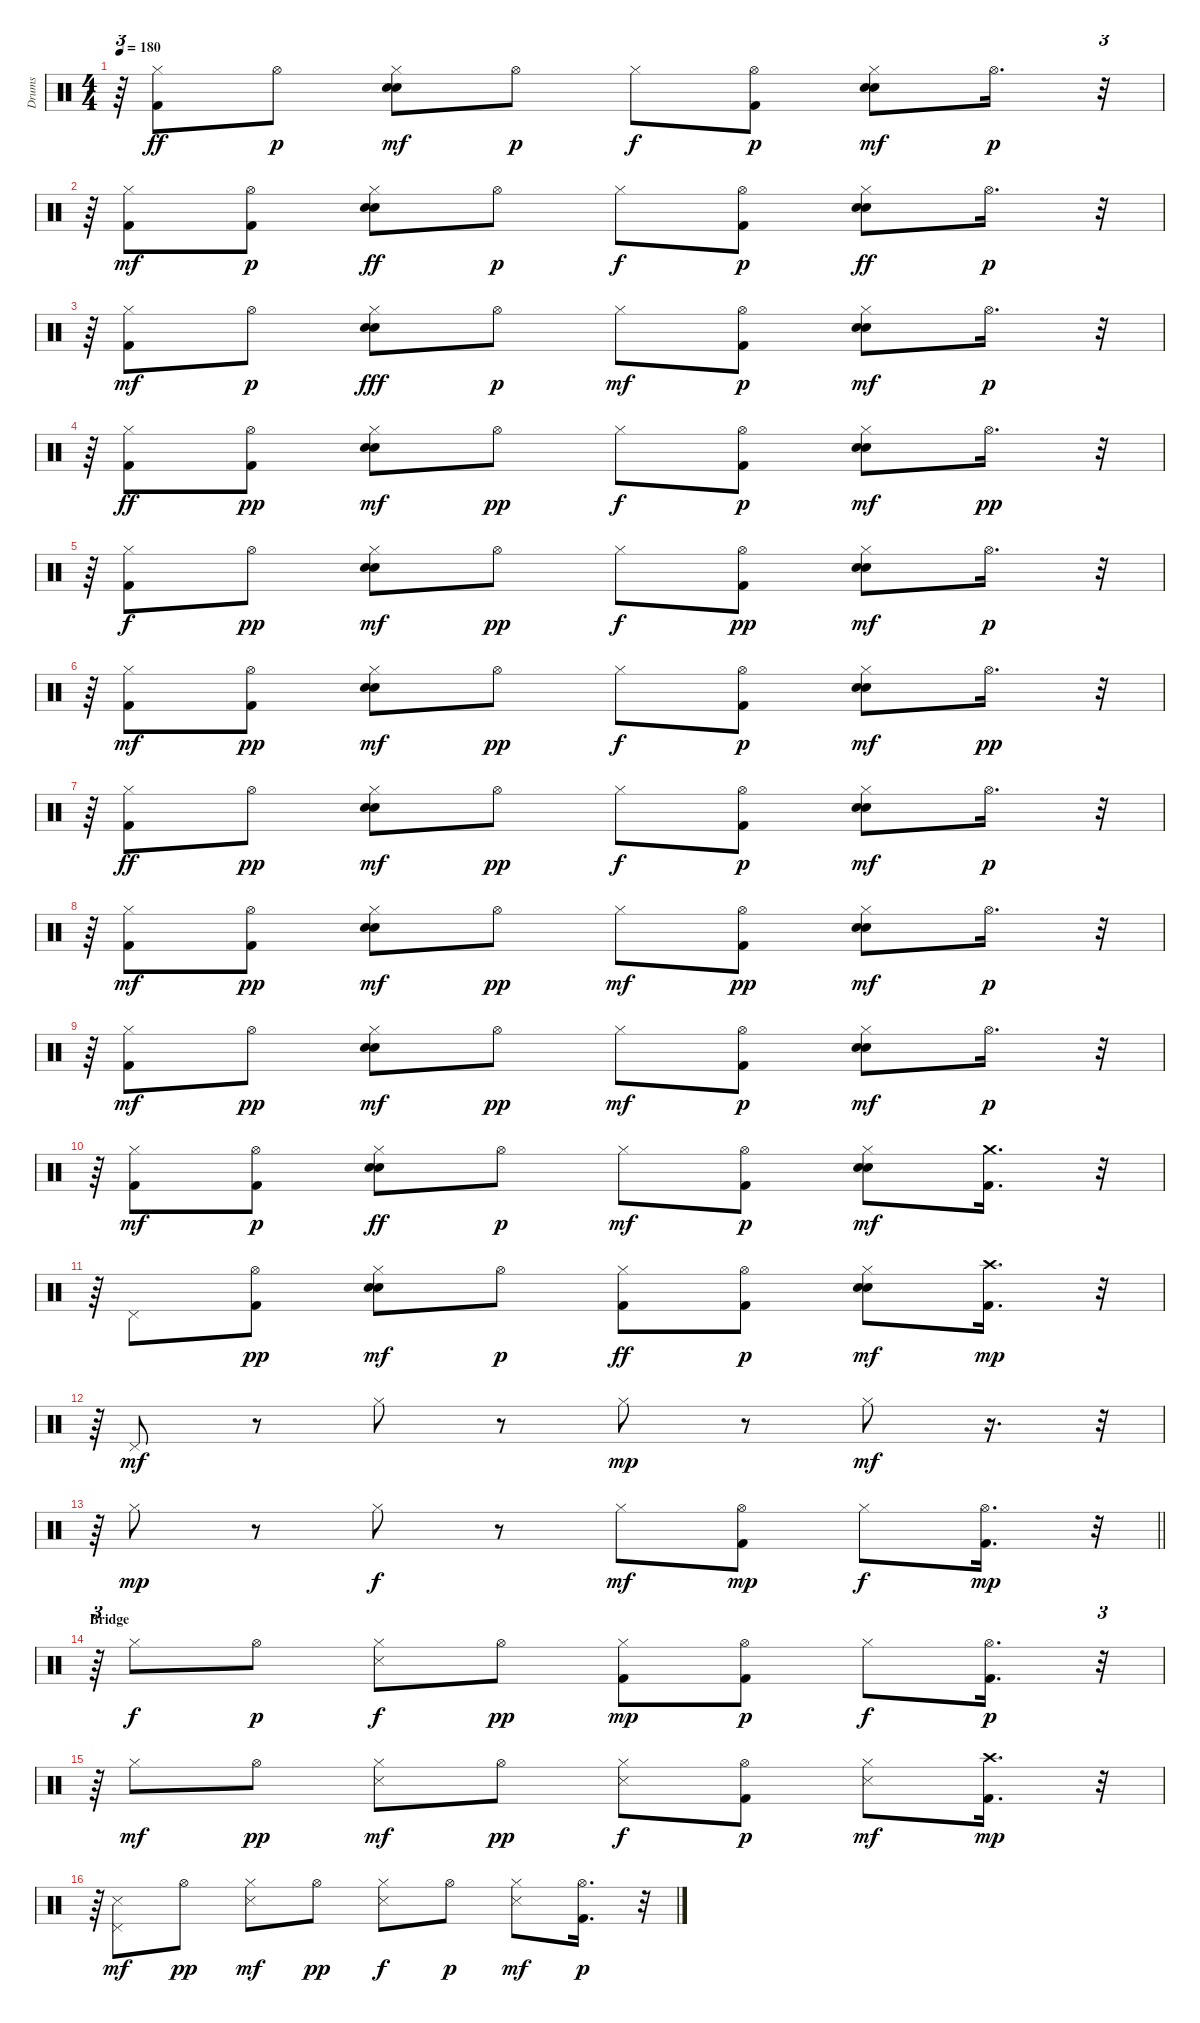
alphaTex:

\track ("Drums" "Drums") {instrument percussion}
\staff {score}
\articulation defaults
\ts (4 4)
\tempo 180
\clef neutral
\ks c
r.64{tu (3 2) dy p} ("Kick (hit) 2" "Hi-Hat (closed)").8{dy ff} "Hi-Hat (open)".8{dy p} ("Electric Snare (hit)" "Snare (hit) 2" "Hi-Hat (closed)").8{dy mf} "Hi-Hat (open)".8{dy p} "Hi-Hat (closed)".8{dy f} ("Kick (hit) 2" "Hi-Hat (open)").8{dy p} ("Electric Snare (hit)" "Snare (hit) 2" "Hi-Hat (closed)").8{dy mf} "Hi-Hat (open)".16{d dy p} r.32{tu (3 2)} |
r.64{tu (3 2)} ("Kick (hit) 2" "Hi-Hat (closed)").8{dy mf} ("Kick (hit) 2" "Hi-Hat (open)").8{dy p} ("Electric Snare (hit)" "Snare (hit) 2" "Hi-Hat (closed)").8{dy ff} "Hi-Hat (open)".8{dy p} "Hi-Hat (closed)".8{dy f} ("Kick (hit) 2" "Hi-Hat (open)").8{dy p} ("Electric Snare (hit)" "Snare (hit) 2" "Hi-Hat (closed)").8{dy ff} "Hi-Hat (open)".16{d dy p} r.32{tu (3 2)} |
r.64{tu (3 2)} ("Kick (hit) 2" "Hi-Hat (closed)").8{dy mf} "Hi-Hat (open)".8{dy p} ("Electric Snare (hit)" "Snare (hit) 2" "Hi-Hat (closed)").8{dy fff} "Hi-Hat (open)".8{dy p} "Hi-Hat (closed)".8{dy mf} ("Kick (hit) 2" "Hi-Hat (open)").8{dy p} ("Electric Snare (hit)" "Snare (hit) 2" "Hi-Hat (closed)").8{dy mf} "Hi-Hat (open)".16{d dy p} r.32{tu (3 2)} |
r.64{tu (3 2)} ("Kick (hit) 2" "Hi-Hat (closed)").8{dy ff} ("Kick (hit) 2" "Hi-Hat (open)").8{dy pp} ("Electric Snare (hit)" "Snare (hit) 2" "Hi-Hat (closed)").8{dy mf} "Hi-Hat (open)".8{dy pp} "Hi-Hat (closed)".8{dy f} ("Kick (hit) 2" "Hi-Hat (open)").8{dy p} ("Electric Snare (hit)" "Snare (hit) 2" "Hi-Hat (closed)").8{dy mf} "Hi-Hat (open)".16{d dy pp} r.32{tu (3 2)} |
r.64{tu (3 2)} ("Kick (hit) 2" "Hi-Hat (closed)").8{dy f} "Hi-Hat (open)".8{dy pp} ("Electric Snare (hit)" "Snare (hit) 2" "Hi-Hat (closed)").8{dy mf} "Hi-Hat (open)".8{dy pp} "Hi-Hat (closed)".8{dy f} ("Kick (hit) 2" "Hi-Hat (open)").8{dy pp} ("Electric Snare (hit)" "Snare (hit) 2" "Hi-Hat (closed)").8{dy mf} "Hi-Hat (open)".16{d dy p} r.32{tu (3 2)} |
r.64{tu (3 2)} ("Kick (hit) 2" "Hi-Hat (closed)").8{dy mf} ("Kick (hit) 2" "Hi-Hat (open)").8{dy pp} ("Electric Snare (hit)" "Snare (hit) 2" "Hi-Hat (closed)").8{dy mf} "Hi-Hat (open)".8{dy pp} "Hi-Hat (closed)".8{dy f} ("Kick (hit) 2" "Hi-Hat (open)").8{dy p} ("Electric Snare (hit)" "Snare (hit) 2" "Hi-Hat (closed)").8{dy mf} "Hi-Hat (open)".16{d dy pp} r.32{tu (3 2)} |
r.64{tu (3 2)} ("Kick (hit) 2" "Hi-Hat (closed)").8{dy ff} "Hi-Hat (open)".8{dy pp} ("Electric Snare (hit)" "Snare (hit) 2" "Hi-Hat (closed)").8{dy mf} "Hi-Hat (open)".8{dy pp} "Hi-Hat (closed)".8{dy f} ("Kick (hit) 2" "Hi-Hat (open)").8{dy p} ("Electric Snare (hit)" "Snare (hit) 2" "Hi-Hat (closed)").8{dy mf} "Hi-Hat (open)".16{d dy p} r.32{tu (3 2)} |
r.64{tu (3 2)} ("Kick (hit) 2" "Hi-Hat (closed)").8{dy mf} ("Kick (hit) 2" "Hi-Hat (open)").8{dy pp} ("Electric Snare (hit)" "Snare (hit) 2" "Hi-Hat (closed)").8{dy mf} "Hi-Hat (open)".8{dy pp} "Hi-Hat (closed)".8{dy mf} ("Kick (hit) 2" "Hi-Hat (open)").8{dy pp} ("Electric Snare (hit)" "Snare (hit) 2" "Hi-Hat (closed)").8{dy mf} "Hi-Hat (open)".16{d dy p} r.32{tu (3 2)} |
r.64{tu (3 2)} ("Kick (hit) 2" "Hi-Hat (closed)").8{dy mf} "Hi-Hat (open)".8{dy pp} ("Electric Snare (hit)" "Snare (hit) 2" "Hi-Hat (closed)").8{dy mf} "Hi-Hat (open)".8{dy pp} "Hi-Hat (closed)".8{dy mf} ("Kick (hit) 2" "Hi-Hat (open)").8{dy p} ("Electric Snare (hit)" "Snare (hit) 2" "Hi-Hat (closed)").8{dy mf} "Hi-Hat (open)".16{d dy p} r.32{tu (3 2)} |
r.64{tu (3 2)} ("Kick (hit) 2" "Hi-Hat (closed)").8{dy mf} ("Kick (hit) 2" "Hi-Hat (open)").8{dy p} ("Electric Snare (hit)" "Snare (hit) 2" "Hi-Hat (closed)").8{dy ff} "Hi-Hat (open)".8{dy p} "Hi-Hat (closed)".8{dy mf} ("Kick (hit) 2" "Hi-Hat (open)").8{dy p} ("Electric Snare (hit)" "Snare (hit) 2" "Hi-Hat (closed)").8{dy mf} ("Kick (hit) 2" "Crash medium (hit)").16{d} r.32{tu (3 2)} |
r.64{tu (3 2)} "Pedal Hi-Hat (hit)".8 ("Kick (hit) 2" "Hi-Hat (open)").8{dy pp} ("Electric Snare (hit)" "Snare (hit) 2" "Hi-Hat (closed)").8{dy mf} "Hi-Hat (open)".8{dy p} ("Kick (hit) 2" "Hi-Hat (closed)").8{dy ff} ("Kick (hit) 2" "Hi-Hat (open)").8{dy p} ("Electric Snare (hit)" "Snare (hit) 2" "Hi-Hat (closed)").8{dy mf} ("Kick (hit) 2" "Crash high (hit)").16{d dy mp} r.32{tu (3 2)} |
r.64{tu (3 2)} "Pedal Hi-Hat (hit)".8{dy mf} r.8 "Hi-Hat (closed)".8 r.8 "Hi-Hat (closed)".8{dy mp} r.8 "Hi-Hat (closed)".8{dy mf} r.16{d} r.32{tu (3 2)} |
\barLineRight lightlight
r.64{tu (3 2)} "Hi-Hat (closed)".8{dy mp} r.8 "Hi-Hat (closed)".8{dy f} r.8 "Hi-Hat (closed)".8{dy mf} ("Kick (hit) 2" "Hi-Hat (open)").8{dy mp} "Hi-Hat (closed)".8{dy f} ("Kick (hit) 2" "Hi-Hat (open)").16{d dy mp} r.32{tu (3 2)} |
\section ("" "Bridge")
r.64{tu (3 2)} "Hi-Hat (closed)".8{dy f} "Hi-Hat (open)".8{dy p} ("Hi-Hat (closed)" "Snare (side stick) 3").8{dy f} "Hi-Hat (open)".8{dy pp} ("Kick (hit) 2" "Hi-Hat (closed)").8{dy mp} ("Kick (hit) 2" "Hi-Hat (open)").8{dy p} "Hi-Hat (closed)".8{dy f} ("Kick (hit) 2" "Hi-Hat (open)").16{d dy p} r.32{tu (3 2)} |
r.64{tu (3 2)} "Hi-Hat (closed)".8{dy mf} "Hi-Hat (open)".8{dy pp} ("Hi-Hat (closed)" "Snare (side stick) 3").8{dy mf} "Hi-Hat (open)".8{dy pp} ("Hi-Hat (closed)" "Snare (side stick) 3").8{dy f} ("Kick (hit) 2" "Hi-Hat (open)").8{dy p} ("Hi-Hat (closed)" "Snare (side stick) 3").8{dy mf} ("Kick (hit) 2" "Crash high (hit)").16{d dy mp} r.32{tu (3 2)} |
r.64{tu (3 2)} ("Pedal Hi-Hat (hit)" "Snare (side stick) 3").8{dy mf} "Hi-Hat (open)".8{dy pp} ("Hi-Hat (closed)" "Snare (side stick) 3").8{dy mf} "Hi-Hat (open)".8{dy pp} ("Hi-Hat (closed)" "Snare (side stick) 3").8{dy f} "Hi-Hat (open)".8{dy p} ("Hi-Hat (closed)" "Snare (side stick) 3").8{dy mf} ("Kick (hit) 2" "Hi-Hat (open)").16{d dy p} r.32{tu (3 2)}
